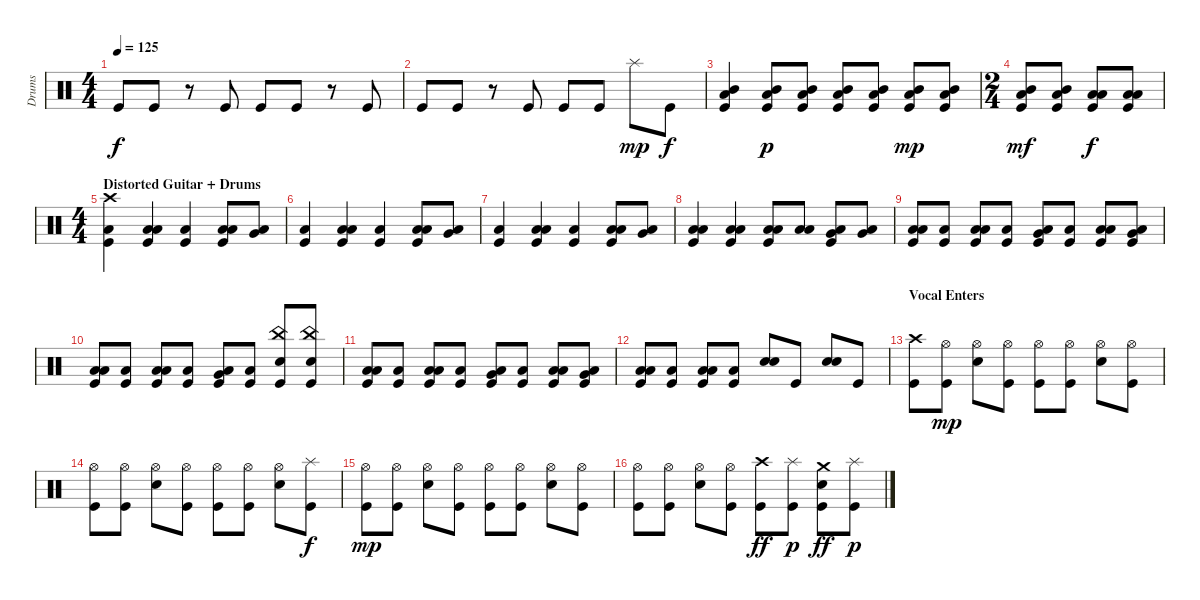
\track ("Drums" "Drums") {instrument percussion}
\staff {score}
\articulation defaults
\ts (4 4)
\tempo 125
\clef neutral
\ks c "Kick (hit)".8{dy f} "Kick (hit)".8
r.8 "Kick (hit)".8 "Kick (hit)".8 "Kick (hit)".8 r.8 "Kick (hit)".8 |
"Kick (hit)".8 "Kick (hit)".8 r.8 "Kick (hit)".8 "Kick (hit)".8 "Kick (hit)".8 "Splash (hit)".8{dy mp} "Kick (hit)".8{dy f} |
("Mid Tom (hit)" "Low Floor Tom (hit)" "Kick (hit)").4 ("Mid Tom (hit)" "Low Floor Tom (hit)" "Kick (hit)").8{dy p} ("Mid Tom (hit)" "Low Floor Tom (hit)" "Kick (hit)").8 ("Mid Tom (hit)" "Low Floor Tom (hit)" "Kick (hit)").8 ("Mid Tom (hit)" "Low Floor Tom (hit)" "Kick (hit)").8 ("Mid Tom (hit)" "Low Floor Tom (hit)" "Kick (hit)").8{dy mp} ("Mid Tom (hit)" "Low Floor Tom (hit)" "Kick (hit)").8 |
\ts (2 4)
("Mid Tom (hit)" "Low Floor Tom (hit)" "Kick (hit)").8{dy mf} ("Mid Tom (hit)" "Low Floor Tom (hit)" "Kick (hit)").8 ("Low Tom (hit)" "Low Floor Tom (hit)" "Kick (hit)").8{dy f} ("Low Tom (hit)" "Low Floor Tom (hit)" "Kick (hit)").8 |
\ts (4 4)
\section ("" "Distorted Guitar + Drums")
("Crash high (hit)" "Low Floor Tom (hit)" "Kick (hit)").4 ("Low Tom (hit)" "Low Floor Tom (hit)" "Kick (hit)").4 ("Low Floor Tom (hit)" "Kick (hit)").4 ("Low Tom (hit)" "Low Floor Tom (hit)" "Kick (hit)").8 ("Very Low Tom (hit)" "Low Floor Tom (hit)").8 |
("Low Floor Tom (hit)" "Kick (hit)").4 ("Low Tom (hit)" "Low Floor Tom (hit)" "Kick (hit)").4 ("Low Floor Tom (hit)" "Kick (hit)").4 ("Low Tom (hit)" "Low Floor Tom (hit)" "Kick (hit)").8 ("Very Low Tom (hit)" "Low Floor Tom (hit)").8 |
("Low Floor Tom (hit)" "Kick (hit)").4 ("Low Tom (hit)" "Low Floor Tom (hit)" "Kick (hit)").4 ("Low Floor Tom (hit)" "Kick (hit)").4 ("Low Tom (hit)" "Low Floor Tom (hit)" "Kick (hit)").8 ("Very Low Tom (hit)" "Low Floor Tom (hit)").8 |
("Low Floor Tom (hit)" "Low Floor Tom (hit)" "Kick (hit)").4 ("Low Tom (hit)" "Low Floor Tom (hit)" "Kick (hit)").4 ("Low Tom (hit)" "Low Floor Tom (hit)" "Kick (hit)").8 ("Low Tom (hit)" "Low Floor Tom (hit)").8 ("Very Low Tom (hit)" "Low Floor Tom (hit)" "Kick (hit)").8 ("Very Low Tom (hit)" "Low Floor Tom (hit)").8 |
("Low Floor Tom (hit)" "Low Floor Tom (hit)" "Kick (hit)").8 ("Low Floor Tom (hit)" "Kick (hit)").8 ("Low Tom (hit)" "Low Floor Tom (hit)" "Kick (hit)").8 ("Low Floor Tom (hit)" "Kick (hit)").8 ("Very Low Tom (hit)" "Low Floor Tom (hit)" "Kick (hit)").8 ("Low Floor Tom (hit)" "Kick (hit)").8 ("Low Tom (hit)" "Low Floor Tom (hit)" "Kick (hit)").8 ("Very Low Tom (hit)" "Low Floor Tom (hit)" "Kick (hit)").8 |
("Low Floor Tom (hit)" "Low Floor Tom (hit)" "Kick (hit)").8 ("Low Floor Tom (hit)" "Kick (hit)").8 ("Low Tom (hit)" "Low Floor Tom (hit)" "Kick (hit)").8 ("Low Floor Tom (hit)" "Kick (hit)").8 ("Very Low Tom (hit)" "Low Floor Tom (hit)" "Kick (hit)").8 ("Low Floor Tom (hit)" "Kick (hit)").8 ("China (hit)" "Snare (hit) 2" "Kick (hit)").8 ("China (hit)" "Snare (hit) 2" "Kick (hit)").8 |
("Low Floor Tom (hit)" "Low Floor Tom (hit)" "Kick (hit)").8 ("Low Floor Tom (hit)" "Kick (hit)").8 ("Low Tom (hit)" "Low Floor Tom (hit)" "Kick (hit)").8 ("Low Floor Tom (hit)" "Kick (hit)").8 ("Very Low Tom (hit)" "Low Floor Tom (hit)" "Kick (hit)").8 ("Low Floor Tom (hit)" "Kick (hit)").8 ("Low Tom (hit)" "Low Floor Tom (hit)" "Kick (hit)").8 ("Very Low Tom (hit)" "Low Floor Tom (hit)" "Kick (hit)").8 |
("Low Floor Tom (hit)" "Low Floor Tom (hit)" "Kick (hit)").8 ("Low Floor Tom (hit)" "Kick (hit)").8 ("Low Tom (hit)" "Low Floor Tom (hit)" "Kick (hit)").8 ("Low Floor Tom (hit)" "Kick (hit)").8 ("Snare (hit) 2" "Snare (hit) 2").8 "Kick (hit)".8 ("Snare (hit) 2" "Snare (hit) 2").8 "Kick (hit)".8 |
\section ("" "Vocal Enters")
("Crash high (hit)" "Kick (hit)").8 ("Hi-Hat (open)" "Kick (hit)").8{dy mp} ("Hi-Hat (open)" "Snare (hit) 2").8 ("Hi-Hat (open)" "Kick (hit)").8 ("Hi-Hat (open)" "Kick (hit)").8 ("Hi-Hat (open)" "Kick (hit)").8 ("Hi-Hat (open)" "Snare (hit) 2").8 ("Hi-Hat (open)" "Kick (hit)").8 |
("Hi-Hat (open)" "Kick (hit)").8 ("Hi-Hat (open)" "Kick (hit)").8 ("Hi-Hat (open)" "Snare (hit) 2").8 ("Hi-Hat (open)" "Kick (hit)").8 ("Hi-Hat (open)" "Kick (hit)").8 ("Hi-Hat (open)" "Kick (hit)").8 ("Hi-Hat (open)" "Snare (hit) 2").8 ("Splash (hit)" "Kick (hit)").8{dy f} |
("Hi-Hat (open)" "Kick (hit)").8{dy mp} ("Hi-Hat (open)" "Kick (hit)").8 ("Hi-Hat (open)" "Snare (hit) 2").8 ("Hi-Hat (open)" "Kick (hit)").8 ("Hi-Hat (open)" "Kick (hit)").8 ("Hi-Hat (open)" "Kick (hit)").8 ("Hi-Hat (open)" "Snare (hit) 2").8 ("Hi-Hat (open)" "Kick (hit)").8 |
("Hi-Hat (open)" "Kick (hit)").8 ("Hi-Hat (open)" "Kick (hit)").8 ("Hi-Hat (open)" "Snare (hit) 2").8 ("Hi-Hat (open)" "Kick (hit)").8 ("Crash high (hit)" "Kick (hit)").8{dy ff} ("Splash (hit)" "Kick (hit)").8{dy p} ("Crash medium (hit)" "Snare (hit) 2" "Kick (hit)").8{dy ff} ("Splash (hit)" "Kick (hit)").8{dy p}
